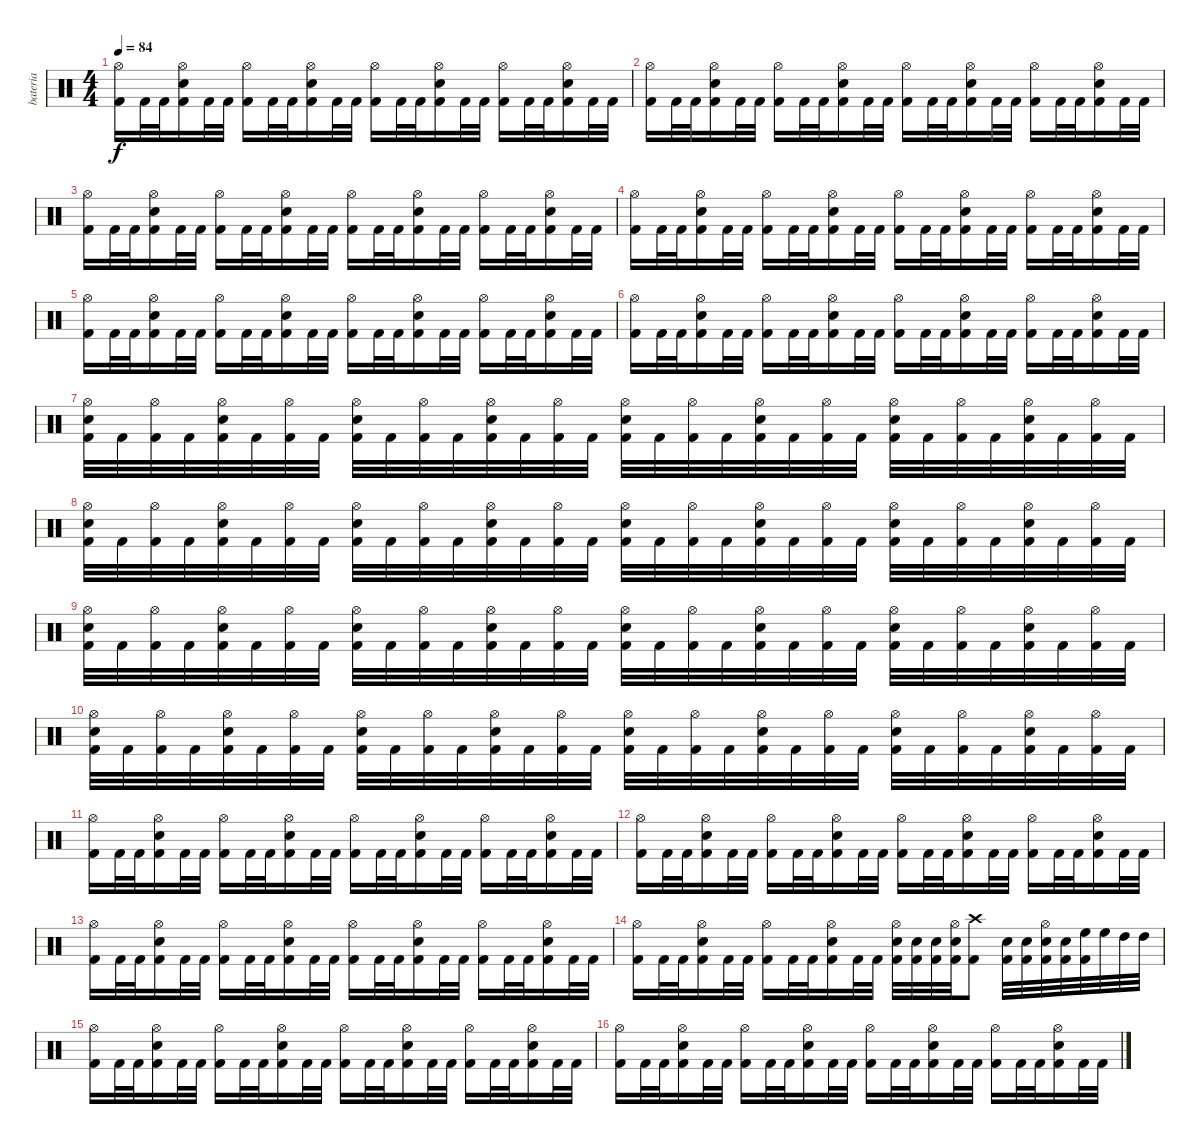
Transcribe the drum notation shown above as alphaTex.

\track ("bateria" "bateria") {instrument percussion}
\staff {score}
\articulation defaults
\ts (4 4)
\tempo 84
\clef neutral
\ks c
("Kick (hit) 2" "Hi-Hat (open)").16{dy f} "Kick (hit) 2".32 "Kick (hit) 2".32 ("Kick (hit) 2" "Electric Snare (hit)" "Hi-Hat (open)").16 "Kick (hit) 2".32 "Kick (hit) 2".32 ("Kick (hit) 2" "Hi-Hat (open)").16 "Kick (hit) 2".32 "Kick (hit) 2".32 ("Kick (hit) 2" "Electric Snare (hit)" "Hi-Hat (open)").16 "Kick (hit) 2".32 "Kick (hit) 2".32 ("Kick (hit) 2" "Hi-Hat (open)").16 "Kick (hit) 2".32 "Kick (hit) 2".32 ("Kick (hit) 2" "Electric Snare (hit)" "Hi-Hat (open)").16 "Kick (hit) 2".32 "Kick (hit) 2".32 ("Kick (hit) 2" "Hi-Hat (open)").16 "Kick (hit) 2".32 "Kick (hit) 2".32 ("Kick (hit) 2" "Electric Snare (hit)" "Hi-Hat (open)").16 "Kick (hit) 2".32 "Kick (hit) 2".32 |
("Kick (hit) 2" "Hi-Hat (open)").16 "Kick (hit) 2".32 "Kick (hit) 2".32 ("Kick (hit) 2" "Electric Snare (hit)" "Hi-Hat (open)").16 "Kick (hit) 2".32 "Kick (hit) 2".32 ("Kick (hit) 2" "Hi-Hat (open)").16 "Kick (hit) 2".32 "Kick (hit) 2".32 ("Kick (hit) 2" "Electric Snare (hit)" "Hi-Hat (open)").16 "Kick (hit) 2".32 "Kick (hit) 2".32 ("Kick (hit) 2" "Hi-Hat (open)").16 "Kick (hit) 2".32 "Kick (hit) 2".32 ("Kick (hit) 2" "Electric Snare (hit)" "Hi-Hat (open)").16 "Kick (hit) 2".32 "Kick (hit) 2".32 ("Kick (hit) 2" "Hi-Hat (open)").16 "Kick (hit) 2".32 "Kick (hit) 2".32 ("Kick (hit) 2" "Electric Snare (hit)" "Hi-Hat (open)").16 "Kick (hit) 2".32 "Kick (hit) 2".32 |
("Kick (hit) 2" "Hi-Hat (open)").16 "Kick (hit) 2".32 "Kick (hit) 2".32 ("Kick (hit) 2" "Electric Snare (hit)" "Hi-Hat (open)").16 "Kick (hit) 2".32 "Kick (hit) 2".32 ("Kick (hit) 2" "Hi-Hat (open)").16 "Kick (hit) 2".32 "Kick (hit) 2".32 ("Kick (hit) 2" "Electric Snare (hit)" "Hi-Hat (open)").16 "Kick (hit) 2".32 "Kick (hit) 2".32 ("Kick (hit) 2" "Hi-Hat (open)").16 "Kick (hit) 2".32 "Kick (hit) 2".32 ("Kick (hit) 2" "Electric Snare (hit)" "Hi-Hat (open)").16 "Kick (hit) 2".32 "Kick (hit) 2".32 ("Kick (hit) 2" "Hi-Hat (open)").16 "Kick (hit) 2".32 "Kick (hit) 2".32 ("Kick (hit) 2" "Electric Snare (hit)" "Hi-Hat (open)").16 "Kick (hit) 2".32 "Kick (hit) 2".32 |
("Kick (hit) 2" "Hi-Hat (open)").16 "Kick (hit) 2".32 "Kick (hit) 2".32 ("Kick (hit) 2" "Electric Snare (hit)" "Hi-Hat (open)").16 "Kick (hit) 2".32 "Kick (hit) 2".32 ("Kick (hit) 2" "Hi-Hat (open)").16 "Kick (hit) 2".32 "Kick (hit) 2".32 ("Kick (hit) 2" "Electric Snare (hit)" "Hi-Hat (open)").16 "Kick (hit) 2".32 "Kick (hit) 2".32 ("Kick (hit) 2" "Hi-Hat (open)").16 "Kick (hit) 2".32 "Kick (hit) 2".32 ("Kick (hit) 2" "Electric Snare (hit)" "Hi-Hat (open)").16 "Kick (hit) 2".32 "Kick (hit) 2".32 ("Kick (hit) 2" "Hi-Hat (open)").16 "Kick (hit) 2".32 "Kick (hit) 2".32 ("Kick (hit) 2" "Electric Snare (hit)" "Hi-Hat (open)").16 "Kick (hit) 2".32 "Kick (hit) 2".32 |
("Kick (hit) 2" "Hi-Hat (open)").16 "Kick (hit) 2".32 "Kick (hit) 2".32 ("Kick (hit) 2" "Electric Snare (hit)" "Hi-Hat (open)").16 "Kick (hit) 2".32 "Kick (hit) 2".32 ("Kick (hit) 2" "Hi-Hat (open)").16 "Kick (hit) 2".32 "Kick (hit) 2".32 ("Kick (hit) 2" "Electric Snare (hit)" "Hi-Hat (open)").16 "Kick (hit) 2".32 "Kick (hit) 2".32 ("Kick (hit) 2" "Hi-Hat (open)").16 "Kick (hit) 2".32 "Kick (hit) 2".32 ("Kick (hit) 2" "Electric Snare (hit)" "Hi-Hat (open)").16 "Kick (hit) 2".32 "Kick (hit) 2".32 ("Kick (hit) 2" "Hi-Hat (open)").16 "Kick (hit) 2".32 "Kick (hit) 2".32 ("Kick (hit) 2" "Electric Snare (hit)" "Hi-Hat (open)").16 "Kick (hit) 2".32 "Kick (hit) 2".32 |
("Kick (hit) 2" "Hi-Hat (open)").16 "Kick (hit) 2".32 "Kick (hit) 2".32 ("Kick (hit) 2" "Electric Snare (hit)" "Hi-Hat (open)").16 "Kick (hit) 2".32 "Kick (hit) 2".32 ("Kick (hit) 2" "Hi-Hat (open)").16 "Kick (hit) 2".32 "Kick (hit) 2".32 ("Kick (hit) 2" "Electric Snare (hit)" "Hi-Hat (open)").16 "Kick (hit) 2".32 "Kick (hit) 2".32 ("Kick (hit) 2" "Hi-Hat (open)").16 "Kick (hit) 2".32 "Kick (hit) 2".32 ("Kick (hit) 2" "Electric Snare (hit)" "Hi-Hat (open)").16 "Kick (hit) 2".32 "Kick (hit) 2".32 ("Kick (hit) 2" "Hi-Hat (open)").16 "Kick (hit) 2".32 "Kick (hit) 2".32 ("Kick (hit) 2" "Electric Snare (hit)" "Hi-Hat (open)").16 "Kick (hit) 2".32 "Kick (hit) 2".32 |
("Kick (hit) 2" "Electric Snare (hit)" "Hi-Hat (open)").32 "Kick (hit) 2".32 ("Kick (hit) 2" "Hi-Hat (open)").32 "Kick (hit) 2".32 ("Kick (hit) 2" "Electric Snare (hit)" "Hi-Hat (open)").32 "Kick (hit) 2".32 ("Kick (hit) 2" "Hi-Hat (open)").32 "Kick (hit) 2".32 ("Kick (hit) 2" "Electric Snare (hit)" "Hi-Hat (open)").32 "Kick (hit) 2".32 ("Kick (hit) 2" "Hi-Hat (open)").32 "Kick (hit) 2".32 ("Kick (hit) 2" "Electric Snare (hit)" "Hi-Hat (open)").32 "Kick (hit) 2".32 ("Kick (hit) 2" "Hi-Hat (open)").32 "Kick (hit) 2".32 ("Kick (hit) 2" "Electric Snare (hit)" "Hi-Hat (open)").32 "Kick (hit) 2".32 ("Kick (hit) 2" "Hi-Hat (open)").32 "Kick (hit) 2".32 ("Kick (hit) 2" "Electric Snare (hit)" "Hi-Hat (open)").32 "Kick (hit) 2".32 ("Kick (hit) 2" "Hi-Hat (open)").32 "Kick (hit) 2".32 ("Kick (hit) 2" "Electric Snare (hit)" "Hi-Hat (open)").32 "Kick (hit) 2".32 ("Kick (hit) 2" "Hi-Hat (open)").32 "Kick (hit) 2".32 ("Kick (hit) 2" "Electric Snare (hit)" "Hi-Hat (open)").32 "Kick (hit) 2".32 ("Kick (hit) 2" "Hi-Hat (open)").32 "Kick (hit) 2".32 |
("Kick (hit) 2" "Electric Snare (hit)" "Hi-Hat (open)").32 "Kick (hit) 2".32 ("Kick (hit) 2" "Hi-Hat (open)").32 "Kick (hit) 2".32 ("Kick (hit) 2" "Electric Snare (hit)" "Hi-Hat (open)").32 "Kick (hit) 2".32 ("Kick (hit) 2" "Hi-Hat (open)").32 "Kick (hit) 2".32 ("Kick (hit) 2" "Electric Snare (hit)" "Hi-Hat (open)").32 "Kick (hit) 2".32 ("Kick (hit) 2" "Hi-Hat (open)").32 "Kick (hit) 2".32 ("Kick (hit) 2" "Electric Snare (hit)" "Hi-Hat (open)").32 "Kick (hit) 2".32 ("Kick (hit) 2" "Hi-Hat (open)").32 "Kick (hit) 2".32 ("Kick (hit) 2" "Electric Snare (hit)" "Hi-Hat (open)").32 "Kick (hit) 2".32 ("Kick (hit) 2" "Hi-Hat (open)").32 "Kick (hit) 2".32 ("Kick (hit) 2" "Electric Snare (hit)" "Hi-Hat (open)").32 "Kick (hit) 2".32 ("Kick (hit) 2" "Hi-Hat (open)").32 "Kick (hit) 2".32 ("Kick (hit) 2" "Electric Snare (hit)" "Hi-Hat (open)").32 "Kick (hit) 2".32 ("Kick (hit) 2" "Hi-Hat (open)").32 "Kick (hit) 2".32 ("Kick (hit) 2" "Electric Snare (hit)" "Hi-Hat (open)").32 "Kick (hit) 2".32 ("Kick (hit) 2" "Hi-Hat (open)").32 "Kick (hit) 2".32 |
("Kick (hit) 2" "Electric Snare (hit)" "Hi-Hat (open)").32 "Kick (hit) 2".32 ("Kick (hit) 2" "Hi-Hat (open)").32 "Kick (hit) 2".32 ("Kick (hit) 2" "Electric Snare (hit)" "Hi-Hat (open)").32 "Kick (hit) 2".32 ("Kick (hit) 2" "Hi-Hat (open)").32 "Kick (hit) 2".32 ("Kick (hit) 2" "Electric Snare (hit)" "Hi-Hat (open)").32 "Kick (hit) 2".32 ("Kick (hit) 2" "Hi-Hat (open)").32 "Kick (hit) 2".32 ("Kick (hit) 2" "Electric Snare (hit)" "Hi-Hat (open)").32 "Kick (hit) 2".32 ("Kick (hit) 2" "Hi-Hat (open)").32 "Kick (hit) 2".32 ("Kick (hit) 2" "Electric Snare (hit)" "Hi-Hat (open)").32 "Kick (hit) 2".32 ("Kick (hit) 2" "Hi-Hat (open)").32 "Kick (hit) 2".32 ("Kick (hit) 2" "Electric Snare (hit)" "Hi-Hat (open)").32 "Kick (hit) 2".32 ("Kick (hit) 2" "Hi-Hat (open)").32 "Kick (hit) 2".32 ("Kick (hit) 2" "Electric Snare (hit)" "Hi-Hat (open)").32 "Kick (hit) 2".32 ("Kick (hit) 2" "Hi-Hat (open)").32 "Kick (hit) 2".32 ("Kick (hit) 2" "Electric Snare (hit)" "Hi-Hat (open)").32 "Kick (hit) 2".32 ("Kick (hit) 2" "Hi-Hat (open)").32 "Kick (hit) 2".32 |
("Kick (hit) 2" "Electric Snare (hit)" "Hi-Hat (open)").32 "Kick (hit) 2".32 ("Kick (hit) 2" "Hi-Hat (open)").32 "Kick (hit) 2".32 ("Kick (hit) 2" "Electric Snare (hit)" "Hi-Hat (open)").32 "Kick (hit) 2".32 ("Kick (hit) 2" "Hi-Hat (open)").32 "Kick (hit) 2".32 ("Kick (hit) 2" "Electric Snare (hit)" "Hi-Hat (open)").32 "Kick (hit) 2".32 ("Kick (hit) 2" "Hi-Hat (open)").32 "Kick (hit) 2".32 ("Kick (hit) 2" "Electric Snare (hit)" "Hi-Hat (open)").32 "Kick (hit) 2".32 ("Kick (hit) 2" "Hi-Hat (open)").32 "Kick (hit) 2".32 ("Kick (hit) 2" "Electric Snare (hit)" "Hi-Hat (open)").32 "Kick (hit) 2".32 ("Kick (hit) 2" "Hi-Hat (open)").32 "Kick (hit) 2".32 ("Kick (hit) 2" "Electric Snare (hit)" "Hi-Hat (open)").32 "Kick (hit) 2".32 ("Kick (hit) 2" "Hi-Hat (open)").32 "Kick (hit) 2".32 ("Kick (hit) 2" "Electric Snare (hit)" "Hi-Hat (open)").32 "Kick (hit) 2".32 ("Kick (hit) 2" "Hi-Hat (open)").32 "Kick (hit) 2".32 ("Kick (hit) 2" "Electric Snare (hit)" "Hi-Hat (open)").32 "Kick (hit) 2".32 ("Kick (hit) 2" "Hi-Hat (open)").32 "Kick (hit) 2".32 |
("Kick (hit) 2" "Hi-Hat (open)").16 "Kick (hit) 2".32 "Kick (hit) 2".32 ("Kick (hit) 2" "Electric Snare (hit)" "Hi-Hat (open)").16 "Kick (hit) 2".32 "Kick (hit) 2".32 ("Kick (hit) 2" "Hi-Hat (open)").16 "Kick (hit) 2".32 "Kick (hit) 2".32 ("Kick (hit) 2" "Electric Snare (hit)" "Hi-Hat (open)").16 "Kick (hit) 2".32 "Kick (hit) 2".32 ("Kick (hit) 2" "Hi-Hat (open)").16 "Kick (hit) 2".32 "Kick (hit) 2".32 ("Kick (hit) 2" "Electric Snare (hit)" "Hi-Hat (open)").16 "Kick (hit) 2".32 "Kick (hit) 2".32 ("Kick (hit) 2" "Hi-Hat (open)").16 "Kick (hit) 2".32 "Kick (hit) 2".32 ("Kick (hit) 2" "Electric Snare (hit)" "Hi-Hat (open)").16 "Kick (hit) 2".32 "Kick (hit) 2".32 |
("Kick (hit) 2" "Hi-Hat (open)").16 "Kick (hit) 2".32 "Kick (hit) 2".32 ("Kick (hit) 2" "Electric Snare (hit)" "Hi-Hat (open)").16 "Kick (hit) 2".32 "Kick (hit) 2".32 ("Kick (hit) 2" "Hi-Hat (open)").16 "Kick (hit) 2".32 "Kick (hit) 2".32 ("Kick (hit) 2" "Electric Snare (hit)" "Hi-Hat (open)").16 "Kick (hit) 2".32 "Kick (hit) 2".32 ("Kick (hit) 2" "Hi-Hat (open)").16 "Kick (hit) 2".32 "Kick (hit) 2".32 ("Kick (hit) 2" "Electric Snare (hit)" "Hi-Hat (open)").16 "Kick (hit) 2".32 "Kick (hit) 2".32 ("Kick (hit) 2" "Hi-Hat (open)").16 "Kick (hit) 2".32 "Kick (hit) 2".32 ("Kick (hit) 2" "Electric Snare (hit)" "Hi-Hat (open)").16 "Kick (hit) 2".32 "Kick (hit) 2".32 |
("Kick (hit) 2" "Hi-Hat (open)").16 "Kick (hit) 2".32 "Kick (hit) 2".32 ("Kick (hit) 2" "Electric Snare (hit)" "Hi-Hat (open)").16 "Kick (hit) 2".32 "Kick (hit) 2".32 ("Kick (hit) 2" "Hi-Hat (open)").16 "Kick (hit) 2".32 "Kick (hit) 2".32 ("Kick (hit) 2" "Electric Snare (hit)" "Hi-Hat (open)").16 "Kick (hit) 2".32 "Kick (hit) 2".32 ("Kick (hit) 2" "Hi-Hat (open)").16 "Kick (hit) 2".32 "Kick (hit) 2".32 ("Kick (hit) 2" "Electric Snare (hit)" "Hi-Hat (open)").16 "Kick (hit) 2".32 "Kick (hit) 2".32 ("Kick (hit) 2" "Hi-Hat (open)").16 "Kick (hit) 2".32 "Kick (hit) 2".32 ("Kick (hit) 2" "Electric Snare (hit)" "Hi-Hat (open)").16 "Kick (hit) 2".32 "Kick (hit) 2".32 |
("Kick (hit) 2" "Hi-Hat (open)").16 "Kick (hit) 2".32 "Kick (hit) 2".32 ("Kick (hit) 2" "Electric Snare (hit)" "Hi-Hat (open)").16 "Kick (hit) 2".32 "Kick (hit) 2".32 ("Kick (hit) 2" "Hi-Hat (open)").16 "Kick (hit) 2".32 "Kick (hit) 2".32 ("Kick (hit) 2" "Electric Snare (hit)" "Hi-Hat (open)").16 "Kick (hit) 2".32 "Kick (hit) 2".32 ("Kick (hit) 2" "Electric Snare (hit)" "Hi-Hat (open)").32 ("Kick (hit) 2" "Electric Snare (hit)").32 ("Kick (hit) 2" "Electric Snare (hit)").32 ("Kick (hit) 2" "Electric Snare (hit)" "Hi-Hat (open)").32 ("Kick (hit) 2" "Crash high (hit)").8 ("Kick (hit) 2" "Electric Snare (hit)").32 ("Kick (hit) 2" "Electric Snare (hit)").32 ("Kick (hit) 2" "Electric Snare (hit)" "Hi-Hat (open)").32 ("Kick (hit) 2" "Electric Snare (hit)").32 ("Kick (hit) 2" "High Floor Tom (hit)").32 "High Floor Tom (hit)".32 "High Tom (hit)".32 "High Tom (hit)".32 |
("Kick (hit) 2" "Hi-Hat (open)").16 "Kick (hit) 2".32 "Kick (hit) 2".32 ("Kick (hit) 2" "Electric Snare (hit)" "Hi-Hat (open)").16 "Kick (hit) 2".32 "Kick (hit) 2".32 ("Kick (hit) 2" "Hi-Hat (open)").16 "Kick (hit) 2".32 "Kick (hit) 2".32 ("Kick (hit) 2" "Electric Snare (hit)" "Hi-Hat (open)").16 "Kick (hit) 2".32 "Kick (hit) 2".32 ("Kick (hit) 2" "Hi-Hat (open)").16 "Kick (hit) 2".32 "Kick (hit) 2".32 ("Kick (hit) 2" "Electric Snare (hit)" "Hi-Hat (open)").16 "Kick (hit) 2".32 "Kick (hit) 2".32 ("Kick (hit) 2" "Hi-Hat (open)").16 "Kick (hit) 2".32 "Kick (hit) 2".32 ("Kick (hit) 2" "Electric Snare (hit)" "Hi-Hat (open)").16 "Kick (hit) 2".32 "Kick (hit) 2".32 |
("Kick (hit) 2" "Hi-Hat (open)").16 "Kick (hit) 2".32 "Kick (hit) 2".32 ("Kick (hit) 2" "Electric Snare (hit)" "Hi-Hat (open)").16 "Kick (hit) 2".32 "Kick (hit) 2".32 ("Kick (hit) 2" "Hi-Hat (open)").16 "Kick (hit) 2".32 "Kick (hit) 2".32 ("Kick (hit) 2" "Electric Snare (hit)" "Hi-Hat (open)").16 "Kick (hit) 2".32 "Kick (hit) 2".32 ("Kick (hit) 2" "Hi-Hat (open)").16 "Kick (hit) 2".32 "Kick (hit) 2".32 ("Kick (hit) 2" "Electric Snare (hit)" "Hi-Hat (open)").16 "Kick (hit) 2".32 "Kick (hit) 2".32 ("Kick (hit) 2" "Hi-Hat (open)").16 "Kick (hit) 2".32 "Kick (hit) 2".32 ("Kick (hit) 2" "Electric Snare (hit)" "Hi-Hat (open)").16 "Kick (hit) 2".32 "Kick (hit) 2".32
